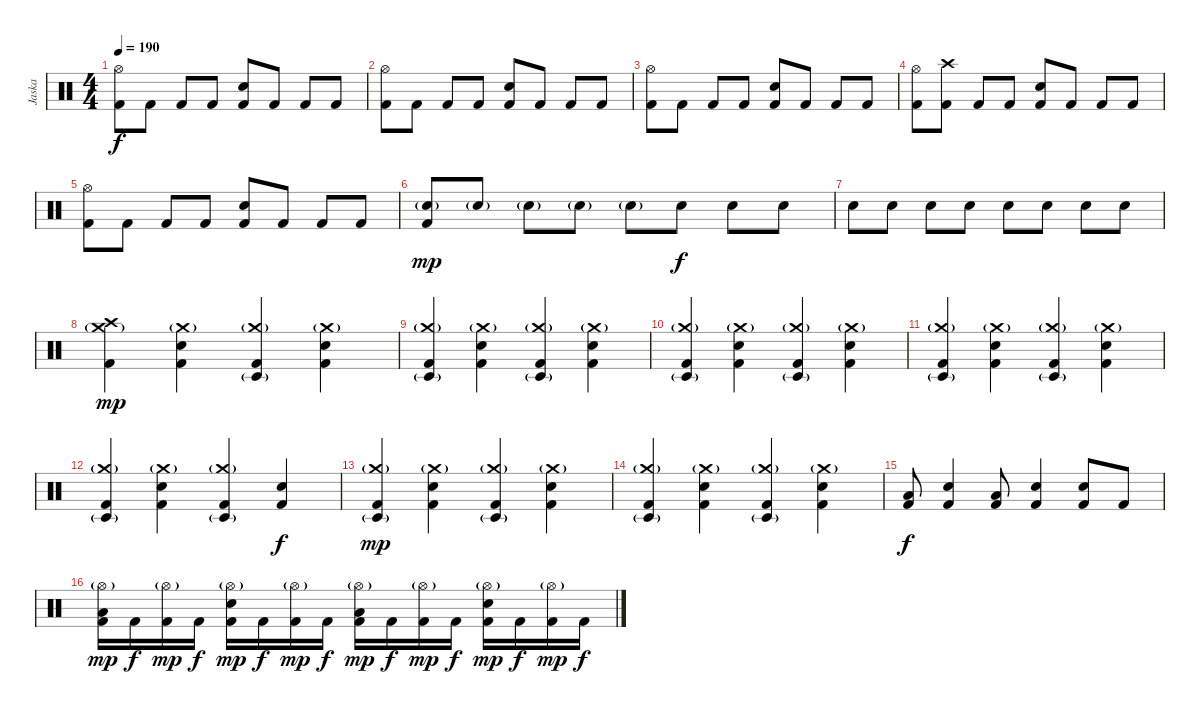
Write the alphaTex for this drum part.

\track ("Jaska" "Jaska") {instrument percussion}
\staff {score}
\articulation defaults
\ts (4 4)
\tempo 190
\clef neutral
\ks c
("Kick (hit) 2" "Hi-Hat (open)").8{dy f} "Kick (hit) 2".8 "Kick (hit) 2".8 "Kick (hit) 2".8 ("Kick (hit) 2" "Snare (hit) 2").8 "Kick (hit) 2".8 "Kick (hit) 2".8 "Kick (hit) 2".8 |
("Kick (hit) 2" "Hi-Hat (open)").8 "Kick (hit) 2".8 "Kick (hit) 2".8 "Kick (hit) 2".8 ("Kick (hit) 2" "Snare (hit) 2").8 "Kick (hit) 2".8 "Kick (hit) 2".8 "Kick (hit) 2".8 |
("Kick (hit) 2" "Hi-Hat (open)").8 "Kick (hit) 2".8 "Kick (hit) 2".8 "Kick (hit) 2".8 ("Kick (hit) 2" "Snare (hit) 2").8 "Kick (hit) 2".8 "Kick (hit) 2".8 "Kick (hit) 2".8 |
("Kick (hit) 2" "Hi-Hat (open)").8 ("Kick (hit) 2" "Crash high (hit)").8 "Kick (hit) 2".8 "Kick (hit) 2".8 ("Kick (hit) 2" "Snare (hit) 2").8 "Kick (hit) 2".8 "Kick (hit) 2".8 "Kick (hit) 2".8 |
("Kick (hit) 2" "Hi-Hat (open)").8 "Kick (hit) 2".8 "Kick (hit) 2".8 "Kick (hit) 2".8 ("Kick (hit) 2" "Snare (hit) 2").8 "Kick (hit) 2".8 "Kick (hit) 2".8 "Kick (hit) 2".8 |
("Kick (hit) 2" "Electric Snare (hit)"{g}).8{dy mp} "Electric Snare (hit)"{g}.8 "Electric Snare (hit)"{g}.8 "Electric Snare (hit)"{g}.8 "Electric Snare (hit)"{g}.8 "Electric Snare (hit)".8{dy f} "Electric Snare (hit)".8 "Electric Snare (hit)".8 |
"Electric Snare (hit)".8 "Electric Snare (hit)".8 "Electric Snare (hit)".8 "Electric Snare (hit)".8 "Electric Snare (hit)".8 "Electric Snare (hit)".8 "Electric Snare (hit)".8 "Electric Snare (hit)".8 |
("Kick (hit) 2" "Crash medium (hit)"{g} "Crash high (hit)").4{dy mp} ("Kick (hit) 2" "Crash medium (hit)"{g} "Snare (hit) 2").4 ("Kick (hit) 2" "Crash medium (hit)"{g} "Timbale low (hit)"{g}).4 ("Kick (hit) 2" "Crash medium (hit)"{g} "Snare (hit) 2").4 |
("Kick (hit) 2" "Crash medium (hit)"{g} "Timbale low (hit)"{g}).4 ("Kick (hit) 2" "Crash medium (hit)"{g} "Snare (hit) 2").4 ("Kick (hit) 2" "Crash medium (hit)"{g} "Timbale low (hit)"{g}).4 ("Kick (hit) 2" "Crash medium (hit)"{g} "Snare (hit) 2").4 |
("Kick (hit) 2" "Crash medium (hit)"{g} "Timbale low (hit)"{g}).4 ("Kick (hit) 2" "Crash medium (hit)"{g} "Snare (hit) 2").4 ("Kick (hit) 2" "Crash medium (hit)"{g} "Timbale low (hit)"{g}).4 ("Kick (hit) 2" "Crash medium (hit)"{g} "Snare (hit) 2").4 |
("Kick (hit) 2" "Crash medium (hit)"{g} "Timbale low (hit)"{g}).4 ("Kick (hit) 2" "Crash medium (hit)"{g} "Snare (hit) 2").4 ("Kick (hit) 2" "Crash medium (hit)"{g} "Timbale low (hit)"{g}).4 ("Kick (hit) 2" "Crash medium (hit)"{g} "Snare (hit) 2").4 |
("Kick (hit) 2" "Crash medium (hit)"{g} "Timbale low (hit)"{g}).4 ("Kick (hit) 2" "Crash medium (hit)"{g} "Snare (hit) 2").4 ("Kick (hit) 2" "Crash medium (hit)"{g} "Timbale low (hit)"{g}).4 ("Kick (hit) 2" "Snare (hit) 2").4{dy f} |
("Kick (hit) 2" "Crash medium (hit)"{g} "Timbale low (hit)"{g}).4{dy mp} ("Kick (hit) 2" "Crash medium (hit)"{g} "Snare (hit) 2").4 ("Kick (hit) 2" "Crash medium (hit)"{g} "Timbale low (hit)"{g}).4 ("Kick (hit) 2" "Crash medium (hit)"{g} "Snare (hit) 2").4 |
("Kick (hit) 2" "Crash medium (hit)"{g} "Timbale low (hit)"{g}).4 ("Kick (hit) 2" "Crash medium (hit)"{g} "Snare (hit) 2").4 ("Kick (hit) 2" "Crash medium (hit)"{g} "Timbale low (hit)"{g}).4 ("Kick (hit) 2" "Crash medium (hit)"{g} "Snare (hit) 2").4 |
("Kick (hit) 2" "Low Tom (hit)").8{dy f} ("Kick (hit) 2" "Snare (hit) 2").4 ("Kick (hit) 2" "Low Tom (hit)").8 ("Kick (hit) 2" "Snare (hit) 2").4 ("Kick (hit) 2" "Snare (hit) 2").8 "Kick (hit) 2".8 |
("Kick (hit) 2" "Hi-Hat (open)"{g} "Low Tom (hit)").16{dy mp} "Kick (hit) 2".16{dy f} ("Kick (hit) 2" "Hi-Hat (open)"{g}).16{dy mp} "Kick (hit) 2".16{dy f} ("Kick (hit) 2" "Hi-Hat (open)"{g} "Snare (hit) 2").16{dy mp} "Kick (hit) 2".16{dy f} ("Kick (hit) 2" "Hi-Hat (open)"{g}).16{dy mp} "Kick (hit) 2".16{dy f} ("Kick (hit) 2" "Hi-Hat (open)"{g} "Low Tom (hit)").16{dy mp} "Kick (hit) 2".16{dy f} ("Kick (hit) 2" "Hi-Hat (open)"{g}).16{dy mp} "Kick (hit) 2".16{dy f} ("Kick (hit) 2" "Hi-Hat (open)"{g} "Snare (hit) 2").16{dy mp} "Kick (hit) 2".16{dy f} ("Kick (hit) 2" "Hi-Hat (open)"{g}).16{dy mp} "Kick (hit) 2".16{dy f}
